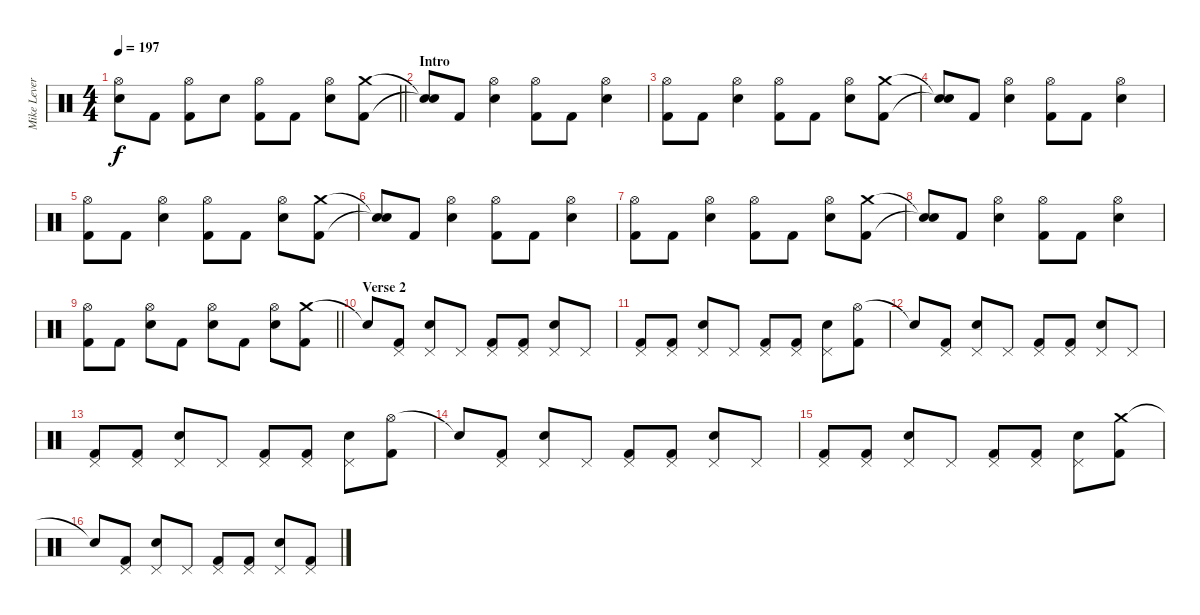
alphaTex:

\track ("Mike Leverence - Drums" "Mike Lever") {instrument percussion}
\staff {score}
\articulation defaults
\ts (4 4)
\tempo 197
\clef neutral
\barLineRight lightlight
\ks c
("Hi-Hat (open)" "Electric Snare (hit)").8{dy f} "Kick (hit) 2".8 ("Hi-Hat (open)" "Kick (hit) 2").8 "Electric Snare (hit)".8 ("Hi-Hat (open)" "Kick (hit) 2").8 "Kick (hit) 2".8 ("Hi-Hat (open)" "Electric Snare (hit)").8 ("Crash medium (hit)" "Kick (hit) 2").8 |
\section ("" "Intro")
("Snare (hit)"{t} "Snare (hit)"{t}).8 "Kick (hit) 2".8 ("Hi-Hat (open)" "Electric Snare (hit)").4 ("Hi-Hat (open)" "Kick (hit) 2").8 "Kick (hit) 2".8 ("Hi-Hat (open)" "Electric Snare (hit)").4 |
("Hi-Hat (open)" "Kick (hit) 2").8 "Kick (hit) 2".8 ("Hi-Hat (open)" "Electric Snare (hit)").4 ("Hi-Hat (open)" "Kick (hit) 2").8 "Kick (hit) 2".8 ("Hi-Hat (open)" "Electric Snare (hit)").8 ("Crash medium (hit)" "Kick (hit) 2").8 |
("Snare (hit)"{t} "Snare (hit)"{t}).8 "Kick (hit) 2".8 ("Hi-Hat (open)" "Electric Snare (hit)").4 ("Hi-Hat (open)" "Kick (hit) 2").8 "Kick (hit) 2".8 ("Hi-Hat (open)" "Electric Snare (hit)").4 |
("Hi-Hat (open)" "Kick (hit) 2").8 "Kick (hit) 2".8 ("Hi-Hat (open)" "Electric Snare (hit)").4 ("Hi-Hat (open)" "Kick (hit) 2").8 "Kick (hit) 2".8 ("Hi-Hat (open)" "Electric Snare (hit)").8 ("Crash medium (hit)" "Kick (hit) 2").8 |
("Snare (hit)"{t} "Snare (hit)"{t}).8 "Kick (hit) 2".8 ("Hi-Hat (open)" "Electric Snare (hit)").4 ("Hi-Hat (open)" "Kick (hit) 2").8 "Kick (hit) 2".8 ("Hi-Hat (open)" "Electric Snare (hit)").4 |
("Hi-Hat (open)" "Kick (hit) 2").8 "Kick (hit) 2".8 ("Hi-Hat (open)" "Electric Snare (hit)").4 ("Hi-Hat (open)" "Kick (hit) 2").8 "Kick (hit) 2".8 ("Hi-Hat (open)" "Electric Snare (hit)").8 ("Crash medium (hit)" "Kick (hit) 2").8 |
("Snare (hit)"{t} "Snare (hit)"{t}).8 "Kick (hit) 2".8 ("Hi-Hat (open)" "Electric Snare (hit)").4 ("Hi-Hat (open)" "Kick (hit) 2").8 "Kick (hit) 2".8 ("Hi-Hat (open)" "Electric Snare (hit)").4 |
\barLineRight lightlight
("Hi-Hat (open)" "Kick (hit) 2").8 "Kick (hit) 2".8 ("Hi-Hat (open)" "Electric Snare (hit)").8 "Kick (hit) 2".8 ("Hi-Hat (open)" "Electric Snare (hit)").8 "Kick (hit) 2".8 ("Hi-Hat (open)" "Electric Snare (hit)").8 ("Crash medium (hit)" "Kick (hit) 2").8 |
\section ("" "Verse 2")
"Snare (hit)"{t}.8 ("Pedal Hi-Hat (hit)" "Kick (hit) 2").8 ("Pedal Hi-Hat (hit)" "Electric Snare (hit)").8 "Pedal Hi-Hat (hit)".8 ("Pedal Hi-Hat (hit)" "Kick (hit) 2").8 ("Pedal Hi-Hat (hit)" "Kick (hit) 2").8 ("Pedal Hi-Hat (hit)" "Electric Snare (hit)").8 "Pedal Hi-Hat (hit)".8 |
("Pedal Hi-Hat (hit)" "Kick (hit) 2").8 ("Pedal Hi-Hat (hit)" "Kick (hit) 2").8 ("Pedal Hi-Hat (hit)" "Electric Snare (hit)").8 "Pedal Hi-Hat (hit)".8 ("Pedal Hi-Hat (hit)" "Kick (hit) 2").8 ("Pedal Hi-Hat (hit)" "Kick (hit) 2").8 ("Pedal Hi-Hat (hit)" "Electric Snare (hit)").8 ("Hi-Hat (open)" "Kick (hit) 2").8 |
"Snare (hit)"{t}.8 ("Pedal Hi-Hat (hit)" "Kick (hit) 2").8 ("Pedal Hi-Hat (hit)" "Electric Snare (hit)").8 "Pedal Hi-Hat (hit)".8 ("Pedal Hi-Hat (hit)" "Kick (hit) 2").8 ("Pedal Hi-Hat (hit)" "Kick (hit) 2").8 ("Pedal Hi-Hat (hit)" "Electric Snare (hit)").8 "Pedal Hi-Hat (hit)".8 |
("Pedal Hi-Hat (hit)" "Kick (hit) 2").8 ("Pedal Hi-Hat (hit)" "Kick (hit) 2").8 ("Pedal Hi-Hat (hit)" "Electric Snare (hit)").8 "Pedal Hi-Hat (hit)".8 ("Pedal Hi-Hat (hit)" "Kick (hit) 2").8 ("Pedal Hi-Hat (hit)" "Kick (hit) 2").8 ("Pedal Hi-Hat (hit)" "Electric Snare (hit)").8 ("Hi-Hat (open)" "Kick (hit) 2").8 |
"Snare (hit)"{t}.8 ("Pedal Hi-Hat (hit)" "Kick (hit) 2").8 ("Pedal Hi-Hat (hit)" "Electric Snare (hit)").8 "Pedal Hi-Hat (hit)".8 ("Pedal Hi-Hat (hit)" "Kick (hit) 2").8 ("Pedal Hi-Hat (hit)" "Kick (hit) 2").8 ("Pedal Hi-Hat (hit)" "Electric Snare (hit)").8 "Pedal Hi-Hat (hit)".8 |
("Pedal Hi-Hat (hit)" "Kick (hit) 2").8 ("Pedal Hi-Hat (hit)" "Kick (hit) 2").8 ("Pedal Hi-Hat (hit)" "Electric Snare (hit)").8 "Pedal Hi-Hat (hit)".8 ("Pedal Hi-Hat (hit)" "Kick (hit) 2").8 ("Pedal Hi-Hat (hit)" "Kick (hit) 2").8 ("Pedal Hi-Hat (hit)" "Electric Snare (hit)").8 ("Crash medium (hit)" "Kick (hit) 2").8 |
"Snare (hit)"{t}.8 ("Pedal Hi-Hat (hit)" "Kick (hit) 2").8 ("Pedal Hi-Hat (hit)" "Electric Snare (hit)").8 "Pedal Hi-Hat (hit)".8 ("Pedal Hi-Hat (hit)" "Kick (hit) 2").8 ("Pedal Hi-Hat (hit)" "Kick (hit) 2").8 ("Pedal Hi-Hat (hit)" "Electric Snare (hit)").8 ("Pedal Hi-Hat (hit)" "Kick (hit) 2").8
